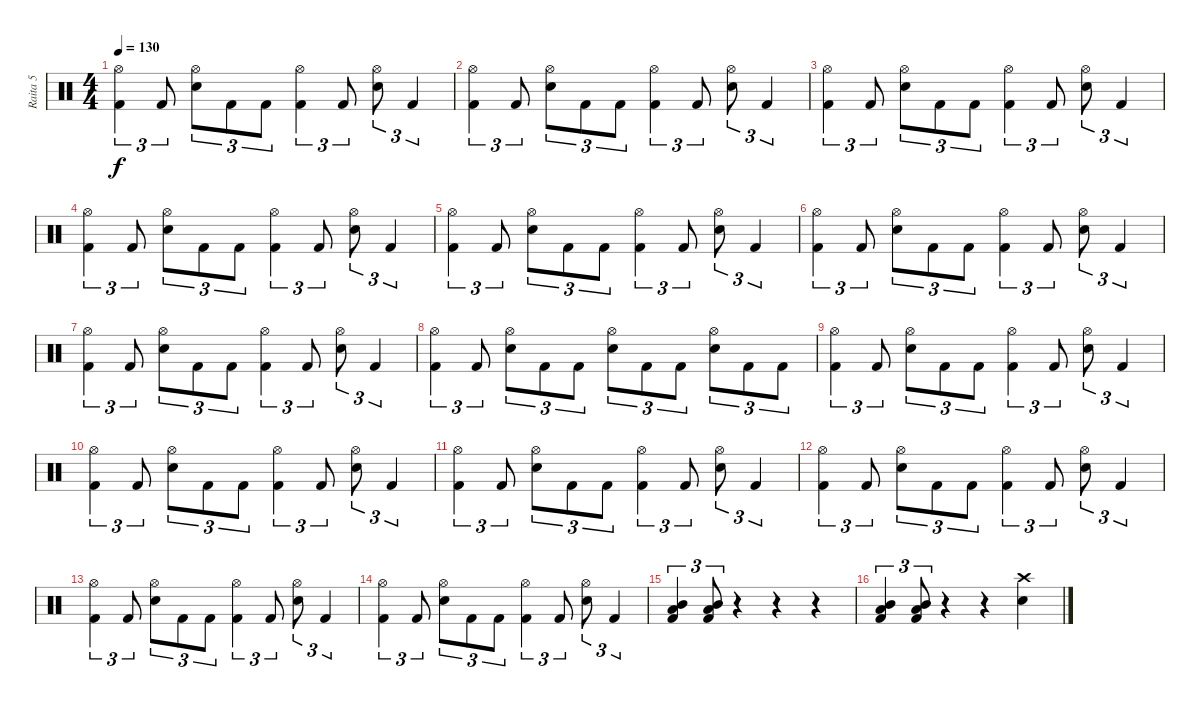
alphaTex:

\track ("Raita 5" "Raita 5") {instrument percussion}
\staff {score}
\articulation defaults
\ts (4 4)
\tempo 130
\clef neutral
\ks c
("Hi-Hat (open)" "Kick (hit) 2").4{tu (3 2) dy f} "Kick (hit) 2".8{tu (3 2)} ("Hi-Hat (open)" "Snare (hit) 2").8{tu (3 2)} "Kick (hit) 2".8{tu (3 2)} "Kick (hit) 2".8{tu (3 2)} ("Hi-Hat (open)" "Kick (hit) 2").4{tu (3 2)} "Kick (hit) 2".8{tu (3 2)} ("Hi-Hat (open)" "Snare (hit) 2").8{tu (3 2)} "Kick (hit) 2".4{tu (3 2)} |
("Hi-Hat (open)" "Kick (hit) 2").4{tu (3 2)} "Kick (hit) 2".8{tu (3 2)} ("Hi-Hat (open)" "Snare (hit) 2").8{tu (3 2)} "Kick (hit) 2".8{tu (3 2)} "Kick (hit) 2".8{tu (3 2)} ("Hi-Hat (open)" "Kick (hit) 2").4{tu (3 2)} "Kick (hit) 2".8{tu (3 2)} ("Hi-Hat (open)" "Snare (hit) 2").8{tu (3 2)} "Kick (hit) 2".4{tu (3 2)} |
("Hi-Hat (open)" "Kick (hit) 2").4{tu (3 2)} "Kick (hit) 2".8{tu (3 2)} ("Hi-Hat (open)" "Snare (hit) 2").8{tu (3 2)} "Kick (hit) 2".8{tu (3 2)} "Kick (hit) 2".8{tu (3 2)} ("Hi-Hat (open)" "Kick (hit) 2").4{tu (3 2)} "Kick (hit) 2".8{tu (3 2)} ("Hi-Hat (open)" "Snare (hit) 2").8{tu (3 2)} "Kick (hit) 2".4{tu (3 2)} |
("Hi-Hat (open)" "Kick (hit) 2").4{tu (3 2)} "Kick (hit) 2".8{tu (3 2)} ("Hi-Hat (open)" "Snare (hit) 2").8{tu (3 2)} "Kick (hit) 2".8{tu (3 2)} "Kick (hit) 2".8{tu (3 2)} ("Hi-Hat (open)" "Kick (hit) 2").4{tu (3 2)} "Kick (hit) 2".8{tu (3 2)} ("Hi-Hat (open)" "Snare (hit) 2").8{tu (3 2)} "Kick (hit) 2".4{tu (3 2)} |
("Hi-Hat (open)" "Kick (hit) 2").4{tu (3 2)} "Kick (hit) 2".8{tu (3 2)} ("Hi-Hat (open)" "Snare (hit) 2").8{tu (3 2)} "Kick (hit) 2".8{tu (3 2)} "Kick (hit) 2".8{tu (3 2)} ("Hi-Hat (open)" "Kick (hit) 2").4{tu (3 2)} "Kick (hit) 2".8{tu (3 2)} ("Hi-Hat (open)" "Snare (hit) 2").8{tu (3 2)} "Kick (hit) 2".4{tu (3 2)} |
("Hi-Hat (open)" "Kick (hit) 2").4{tu (3 2)} "Kick (hit) 2".8{tu (3 2)} ("Hi-Hat (open)" "Snare (hit) 2").8{tu (3 2)} "Kick (hit) 2".8{tu (3 2)} "Kick (hit) 2".8{tu (3 2)} ("Hi-Hat (open)" "Kick (hit) 2").4{tu (3 2)} "Kick (hit) 2".8{tu (3 2)} ("Hi-Hat (open)" "Snare (hit) 2").8{tu (3 2)} "Kick (hit) 2".4{tu (3 2)} |
("Hi-Hat (open)" "Kick (hit) 2").4{tu (3 2)} "Kick (hit) 2".8{tu (3 2)} ("Hi-Hat (open)" "Snare (hit) 2").8{tu (3 2)} "Kick (hit) 2".8{tu (3 2)} "Kick (hit) 2".8{tu (3 2)} ("Hi-Hat (open)" "Kick (hit) 2").4{tu (3 2)} "Kick (hit) 2".8{tu (3 2)} ("Hi-Hat (open)" "Snare (hit) 2").8{tu (3 2)} "Kick (hit) 2".4{tu (3 2)} |
("Hi-Hat (open)" "Kick (hit) 2").4{tu (3 2)} "Kick (hit) 2".8{tu (3 2)} ("Hi-Hat (open)" "Snare (hit) 2").8{tu (3 2)} "Kick (hit) 2".8{tu (3 2)} "Kick (hit) 2".8{tu (3 2)} ("Hi-Hat (open)" "Snare (hit) 2").8{tu (3 2)} "Kick (hit) 2".8{tu (3 2)} "Kick (hit) 2".8{tu (3 2)} ("Hi-Hat (open)" "Snare (hit) 2").8{tu (3 2)} "Kick (hit) 2".8{tu (3 2)} "Kick (hit) 2".8{tu (3 2)} |
("Hi-Hat (open)" "Kick (hit) 2").4{tu (3 2)} "Kick (hit) 2".8{tu (3 2)} ("Hi-Hat (open)" "Snare (hit) 2").8{tu (3 2)} "Kick (hit) 2".8{tu (3 2)} "Kick (hit) 2".8{tu (3 2)} ("Hi-Hat (open)" "Kick (hit) 2").4{tu (3 2)} "Kick (hit) 2".8{tu (3 2)} ("Hi-Hat (open)" "Snare (hit) 2").8{tu (3 2)} "Kick (hit) 2".4{tu (3 2)} |
("Hi-Hat (open)" "Kick (hit) 2").4{tu (3 2)} "Kick (hit) 2".8{tu (3 2)} ("Hi-Hat (open)" "Snare (hit) 2").8{tu (3 2)} "Kick (hit) 2".8{tu (3 2)} "Kick (hit) 2".8{tu (3 2)} ("Hi-Hat (open)" "Kick (hit) 2").4{tu (3 2)} "Kick (hit) 2".8{tu (3 2)} ("Hi-Hat (open)" "Snare (hit) 2").8{tu (3 2)} "Kick (hit) 2".4{tu (3 2)} |
("Hi-Hat (open)" "Kick (hit) 2").4{tu (3 2)} "Kick (hit) 2".8{tu (3 2)} ("Hi-Hat (open)" "Snare (hit) 2").8{tu (3 2)} "Kick (hit) 2".8{tu (3 2)} "Kick (hit) 2".8{tu (3 2)} ("Hi-Hat (open)" "Kick (hit) 2").4{tu (3 2)} "Kick (hit) 2".8{tu (3 2)} ("Hi-Hat (open)" "Snare (hit) 2").8{tu (3 2)} "Kick (hit) 2".4{tu (3 2)} |
("Hi-Hat (open)" "Kick (hit) 2").4{tu (3 2)} "Kick (hit) 2".8{tu (3 2)} ("Hi-Hat (open)" "Snare (hit) 2").8{tu (3 2)} "Kick (hit) 2".8{tu (3 2)} "Kick (hit) 2".8{tu (3 2)} ("Hi-Hat (open)" "Kick (hit) 2").4{tu (3 2)} "Kick (hit) 2".8{tu (3 2)} ("Hi-Hat (open)" "Snare (hit) 2").8{tu (3 2)} "Kick (hit) 2".4{tu (3 2)} |
("Hi-Hat (open)" "Kick (hit) 2").4{tu (3 2)} "Kick (hit) 2".8{tu (3 2)} ("Hi-Hat (open)" "Snare (hit) 2").8{tu (3 2)} "Kick (hit) 2".8{tu (3 2)} "Kick (hit) 2".8{tu (3 2)} ("Hi-Hat (open)" "Kick (hit) 2").4{tu (3 2)} "Kick (hit) 2".8{tu (3 2)} ("Hi-Hat (open)" "Snare (hit) 2").8{tu (3 2)} "Kick (hit) 2".4{tu (3 2)} |
("Hi-Hat (open)" "Kick (hit) 2").4{tu (3 2)} "Kick (hit) 2".8{tu (3 2)} ("Hi-Hat (open)" "Snare (hit) 2").8{tu (3 2)} "Kick (hit) 2".8{tu (3 2)} "Kick (hit) 2".8{tu (3 2)} ("Hi-Hat (open)" "Kick (hit) 2").4{tu (3 2)} "Kick (hit) 2".8{tu (3 2)} ("Hi-Hat (open)" "Snare (hit) 2").8{tu (3 2)} "Kick (hit) 2".4{tu (3 2)} |
("Mid Tom (hit)" "Low Tom (hit)" "Kick (hit) 2").4{tu (3 2)} ("Mid Tom (hit)" "Low Tom (hit)" "Kick (hit) 2").8{tu (3 2)} r.4 r.4 r.4 |
("Mid Tom (hit)" "Low Tom (hit)" "Kick (hit) 2").4{tu (3 2)} ("Mid Tom (hit)" "Low Tom (hit)" "Kick (hit) 2").8{tu (3 2)} r.4 r.4 ("Crash high (hit)" "Snare (hit) 2").4
